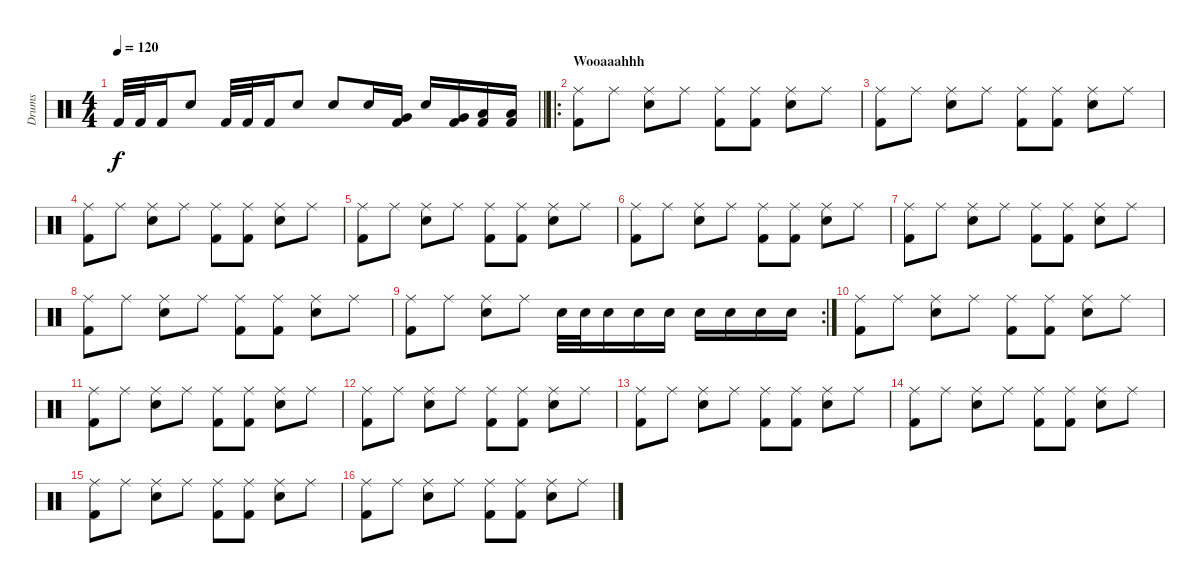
\track ("Drums" "Drums") {instrument percussion}
\staff {score}
\articulation defaults
\ts (4 4)
\tempo 120
\clef neutral
\barLineRight lightlight
\ks c "Kick (hit) 2".32{dy f} "Kick (hit) 2".32 "Kick (hit) 2".16 "Snare (hit) 2".8 "Kick (hit) 2".32 "Kick (hit) 2".32 "Kick (hit) 2".16 "Snare (hit) 2".8 "Snare (hit) 2".8 "Snare (hit) 2".16
("Very Low Tom (hit)" "Kick (hit) 2").16 "Snare (hit) 2".16 ("Very Low Tom (hit)" "Kick (hit) 2").16 ("Low Floor Tom (hit)" "Kick (hit) 2").16 ("Low Floor Tom (hit)" "Kick (hit) 2").16 |
\ro
\section ("" "Wooaaahhh")
("Ride (middle)" "Kick (hit) 2").8 "Ride (middle)".8 ("Ride (middle)" "Snare (hit) 2").8 "Ride (middle)".8 ("Ride (middle)" "Kick (hit) 2").8 ("Ride (middle)" "Kick (hit) 2").8 ("Ride (middle)" "Snare (hit) 2").8 "Ride (middle)".8 |
("Ride (middle)" "Kick (hit) 2").8 "Ride (middle)".8 ("Ride (middle)" "Snare (hit) 2").8 "Ride (middle)".8 ("Ride (middle)" "Kick (hit) 2").8 ("Ride (middle)" "Kick (hit) 2").8 ("Ride (middle)" "Snare (hit) 2").8 "Ride (middle)".8 |
("Ride (middle)" "Kick (hit) 2").8 "Ride (middle)".8 ("Ride (middle)" "Snare (hit) 2").8 "Ride (middle)".8 ("Ride (middle)" "Kick (hit) 2").8 ("Ride (middle)" "Kick (hit) 2").8 ("Ride (middle)" "Snare (hit) 2").8 "Ride (middle)".8 |
("Ride (middle)" "Kick (hit) 2").8 "Ride (middle)".8 ("Ride (middle)" "Snare (hit) 2").8 "Ride (middle)".8 ("Ride (middle)" "Kick (hit) 2").8 ("Ride (middle)" "Kick (hit) 2").8 ("Ride (middle)" "Snare (hit) 2").8 "Ride (middle)".8 |
("Ride (middle)" "Kick (hit) 2").8 "Ride (middle)".8 ("Ride (middle)" "Snare (hit) 2").8 "Ride (middle)".8 ("Ride (middle)" "Kick (hit) 2").8 ("Ride (middle)" "Kick (hit) 2").8 ("Ride (middle)" "Snare (hit) 2").8 "Ride (middle)".8 |
("Ride (middle)" "Kick (hit) 2").8 "Ride (middle)".8 ("Ride (middle)" "Snare (hit) 2").8 "Ride (middle)".8 ("Ride (middle)" "Kick (hit) 2").8 ("Ride (middle)" "Kick (hit) 2").8 ("Ride (middle)" "Snare (hit) 2").8 "Ride (middle)".8 |
("Ride (middle)" "Kick (hit) 2").8 "Ride (middle)".8 ("Ride (middle)" "Snare (hit) 2").8 "Ride (middle)".8 ("Ride (middle)" "Kick (hit) 2").8 ("Ride (middle)" "Kick (hit) 2").8 ("Ride (middle)" "Snare (hit) 2").8 "Ride (middle)".8 |
\rc 2
("Ride (middle)" "Kick (hit) 2").8 "Ride (middle)".8 ("Ride (middle)" "Snare (hit) 2").8 "Ride (middle)".8 "Snare (hit) 2".32 "Snare (hit) 2".32 "Snare (hit) 2".16 "Snare (hit) 2".16 "Snare (hit) 2".16 "Snare (hit) 2".16 "Snare (hit) 2".16 "Snare (hit) 2".16 "Snare (hit) 2".16 |
("Ride (middle)" "Kick (hit) 2").8 "Ride (middle)".8 ("Ride (middle)" "Snare (hit) 2").8 "Ride (middle)".8 ("Ride (middle)" "Kick (hit) 2").8 ("Ride (middle)" "Kick (hit) 2").8 ("Ride (middle)" "Snare (hit) 2").8 "Ride (middle)".8 |
("Ride (middle)" "Kick (hit) 2").8 "Ride (middle)".8 ("Ride (middle)" "Snare (hit) 2").8 "Ride (middle)".8 ("Ride (middle)" "Kick (hit) 2").8 ("Ride (middle)" "Kick (hit) 2").8 ("Ride (middle)" "Snare (hit) 2").8 "Ride (middle)".8 |
("Ride (middle)" "Kick (hit) 2").8 "Ride (middle)".8 ("Ride (middle)" "Snare (hit) 2").8 "Ride (middle)".8 ("Ride (middle)" "Kick (hit) 2").8 ("Ride (middle)" "Kick (hit) 2").8 ("Ride (middle)" "Snare (hit) 2").8 "Ride (middle)".8 |
("Ride (middle)" "Kick (hit) 2").8 "Ride (middle)".8 ("Ride (middle)" "Snare (hit) 2").8 "Ride (middle)".8 ("Ride (middle)" "Kick (hit) 2").8 ("Ride (middle)" "Kick (hit) 2").8 ("Ride (middle)" "Snare (hit) 2").8 "Ride (middle)".8 |
("Ride (middle)" "Kick (hit) 2").8 "Ride (middle)".8 ("Ride (middle)" "Snare (hit) 2").8 "Ride (middle)".8 ("Ride (middle)" "Kick (hit) 2").8 ("Ride (middle)" "Kick (hit) 2").8 ("Ride (middle)" "Snare (hit) 2").8 "Ride (middle)".8 |
("Ride (middle)" "Kick (hit) 2").8 "Ride (middle)".8 ("Ride (middle)" "Snare (hit) 2").8 "Ride (middle)".8 ("Ride (middle)" "Kick (hit) 2").8 ("Ride (middle)" "Kick (hit) 2").8 ("Ride (middle)" "Snare (hit) 2").8 "Ride (middle)".8 |
("Ride (middle)" "Kick (hit) 2").8 "Ride (middle)".8 ("Ride (middle)" "Snare (hit) 2").8 "Ride (middle)".8 ("Ride (middle)" "Kick (hit) 2").8 ("Ride (middle)" "Kick (hit) 2").8 ("Ride (middle)" "Snare (hit) 2").8 "Ride (middle)".8
